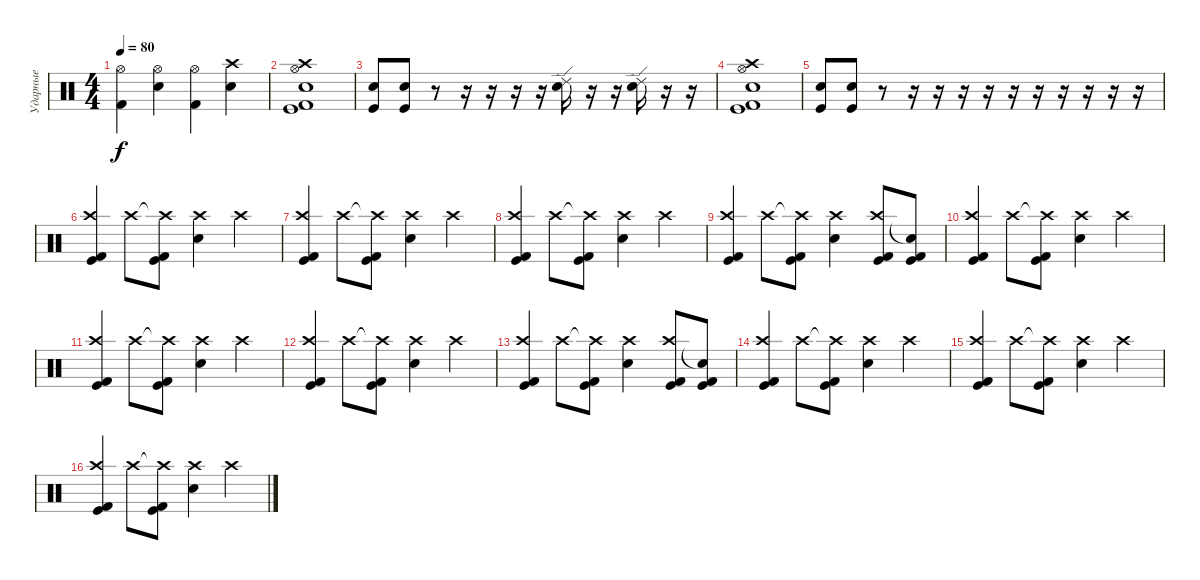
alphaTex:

\track ("Ударные" "Ударные") {instrument percussion}
\staff {score}
\articulation defaults
\ts (4 4)
\tempo 80
\clef neutral
\ks c
("Hi-Hat (open)" "Kick (hit) 2").4{dy f} ("Hi-Hat (open)" "Electric Snare (hit)").4 ("Hi-Hat (open)" "Kick (hit) 2").4 ("Crash high (hit)" "Electric Snare (hit)").4 |
("Hi-Hat (open)" "Crash high (hit)" "Electric Snare (hit)" "Kick (hit)" "Kick (hit) 2").1 |
("Snare (hit) 2" "Kick (hit)").8 ("Snare (hit) 2" "Kick (hit)").8 r.8 r.16 r.16 r.16 r.16 ("Ride (edge) 2" "Electric Snare (hit)").16 r.16 r.16 ("Ride (edge) 2" "Electric Snare (hit)").16 r.16 r.16 |
("Hi-Hat (open)" "Crash high (hit)" "Electric Snare (hit)" "Kick (hit)" "Kick (hit) 2").1 |
("Snare (hit) 2" "Kick (hit)").8 ("Snare (hit) 2" "Kick (hit)").8 r.8 r.16 r.16 r.16 r.16 r.16 r.16 r.16 r.16 r.16 r.16 |
("Crash high (hit)" "Kick (hit)" "Kick (hit) 2").4 "Crash high (hit)".8 ("Crash high (hit)"{t} "Kick (hit)" "Kick (hit) 2").8 ("Crash high (hit)" "Electric Snare (hit)").4 "Crash high (hit)".4 |
("Crash high (hit)" "Kick (hit)" "Kick (hit) 2").4 "Crash high (hit)".8 ("Crash high (hit)"{t} "Kick (hit)" "Kick (hit) 2").8 ("Crash high (hit)" "Electric Snare (hit)").4 "Crash high (hit)".4 |
("Crash high (hit)" "Kick (hit)" "Kick (hit) 2").4 "Crash high (hit)".8 ("Crash high (hit)"{t} "Kick (hit)" "Kick (hit) 2").8 ("Crash high (hit)" "Electric Snare (hit)").4 "Crash high (hit)".4 |
("Crash high (hit)" "Kick (hit)" "Kick (hit) 2").4 "Crash high (hit)".8 ("Crash high (hit)"{t} "Kick (hit)" "Kick (hit) 2").8 ("Crash high (hit)" "Electric Snare (hit)").4 ("Crash high (hit)" "Kick (hit)" "Kick (hit) 2").8 ("Snare (hit)"{t} "Kick (hit)" "Kick (hit) 2").8 |
("Crash high (hit)" "Kick (hit)" "Kick (hit) 2").4 "Crash high (hit)".8 ("Crash high (hit)"{t} "Kick (hit)" "Kick (hit) 2").8 ("Crash high (hit)" "Electric Snare (hit)").4 "Crash high (hit)".4 |
("Crash high (hit)" "Kick (hit)" "Kick (hit) 2").4 "Crash high (hit)".8 ("Crash high (hit)"{t} "Kick (hit)" "Kick (hit) 2").8 ("Crash high (hit)" "Electric Snare (hit)").4 "Crash high (hit)".4 |
("Crash high (hit)" "Kick (hit)" "Kick (hit) 2").4 "Crash high (hit)".8 ("Crash high (hit)"{t} "Kick (hit)" "Kick (hit) 2").8 ("Crash high (hit)" "Electric Snare (hit)").4 "Crash high (hit)".4 |
("Crash high (hit)" "Kick (hit)" "Kick (hit) 2").4 "Crash high (hit)".8 ("Crash high (hit)"{t} "Kick (hit)" "Kick (hit) 2").8 ("Crash high (hit)" "Electric Snare (hit)").4 ("Crash high (hit)" "Kick (hit)" "Kick (hit) 2").8 ("Snare (hit)"{t} "Kick (hit)" "Kick (hit) 2").8 |
("Crash high (hit)" "Kick (hit)" "Kick (hit) 2").4 "Crash high (hit)".8 ("Crash high (hit)"{t} "Kick (hit)" "Kick (hit) 2").8 ("Crash high (hit)" "Electric Snare (hit)").4 "Crash high (hit)".4 |
("Crash high (hit)" "Kick (hit)" "Kick (hit) 2").4 "Crash high (hit)".8 ("Crash high (hit)"{t} "Kick (hit)" "Kick (hit) 2").8 ("Crash high (hit)" "Electric Snare (hit)").4 "Crash high (hit)".4 |
("Crash high (hit)" "Kick (hit)" "Kick (hit) 2").4 "Crash high (hit)".8 ("Crash high (hit)"{t} "Kick (hit)" "Kick (hit) 2").8 ("Crash high (hit)" "Electric Snare (hit)").4 "Crash high (hit)".4
